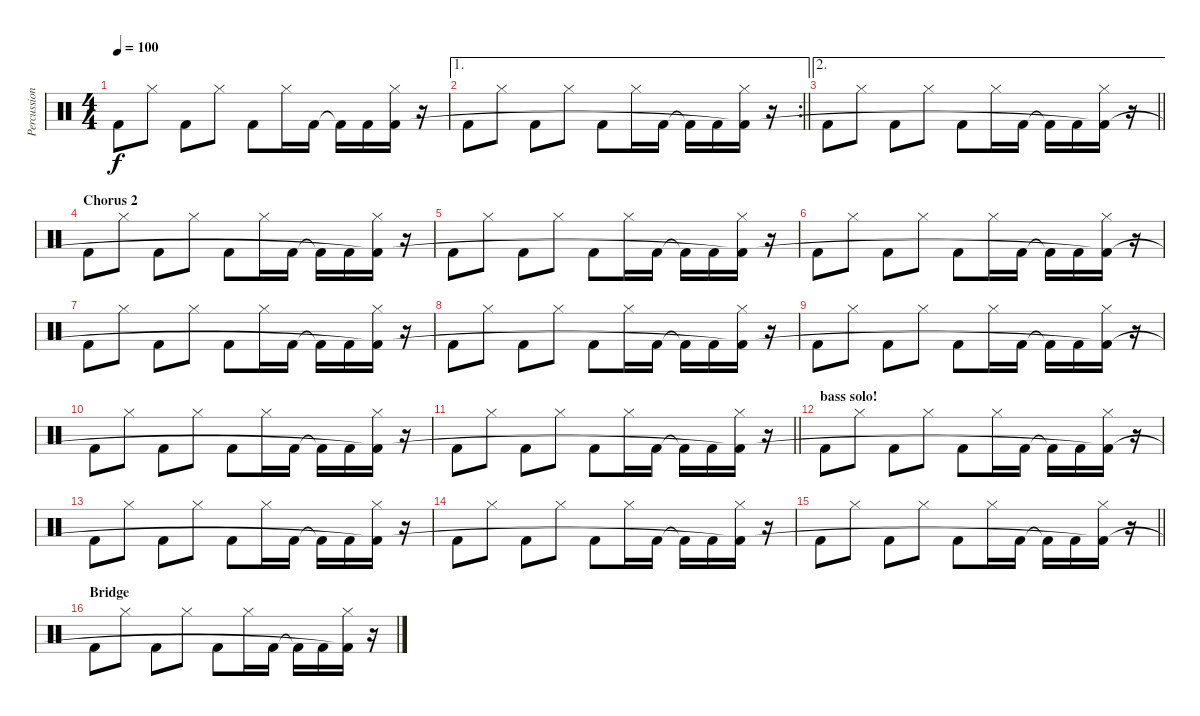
\track ("Percussion" "Percussion") {instrument percussion}
\staff {score}
\articulation defaults
\ts (4 4)
\tempo 100
\clef neutral
\ks c "Kick (hit) 2".8{dy f} "Hi-Hat (closed)".8 "Kick (hit) 2".8 "Hi-Hat (closed)".8 "Kick (hit) 2".8 "Hi-Hat (closed)".16 "Kick (hit) 2".16 "Kick (hit) 2"{t}.16 "Kick (hit) 2".16
("Hi-Hat (closed)" "Kick (hit) 2"{t}).16 r.16 |
\ae 1
\rc 2
\barLineRight lightlight "Kick (hit) 2".8 "Hi-Hat (closed)".8 "Kick (hit) 2".8 "Hi-Hat (closed)".8 "Kick (hit) 2".8 "Hi-Hat (closed)".16 "Kick (hit) 2".16 "Kick (hit) 2"{t}.16 "Kick (hit) 2".16
("Hi-Hat (closed)" "Kick (hit) 2"{t}).16 r.16 |
\ae 2
\barLineRight lightlight "Kick (hit) 2".8 "Hi-Hat (closed)".8 "Kick (hit) 2".8 "Hi-Hat (closed)".8 "Kick (hit) 2".8 "Hi-Hat (closed)".16 "Kick (hit) 2".16 "Kick (hit) 2"{t}.16 "Kick (hit) 2".16
("Hi-Hat (closed)" "Kick (hit) 2"{t}).16 r.16 |
\section ("" "Chorus 2")
"Kick (hit) 2".8 "Hi-Hat (closed)".8 "Kick (hit) 2".8 "Hi-Hat (closed)".8 "Kick (hit) 2".8 "Hi-Hat (closed)".16 "Kick (hit) 2".16 "Kick (hit) 2"{t}.16 "Kick (hit) 2".16 ("Hi-Hat (closed)" "Kick (hit) 2"{t}).16 r.16 |
"Kick (hit) 2".8 "Hi-Hat (closed)".8 "Kick (hit) 2".8 "Hi-Hat (closed)".8 "Kick (hit) 2".8 "Hi-Hat (closed)".16 "Kick (hit) 2".16 "Kick (hit) 2"{t}.16 "Kick (hit) 2".16 ("Hi-Hat (closed)" "Kick (hit) 2"{t}).16 r.16 |
"Kick (hit) 2".8 "Hi-Hat (closed)".8 "Kick (hit) 2".8 "Hi-Hat (closed)".8 "Kick (hit) 2".8 "Hi-Hat (closed)".16 "Kick (hit) 2".16 "Kick (hit) 2"{t}.16 "Kick (hit) 2".16 ("Hi-Hat (closed)" "Kick (hit) 2"{t}).16 r.16 |
"Kick (hit) 2".8 "Hi-Hat (closed)".8 "Kick (hit) 2".8 "Hi-Hat (closed)".8 "Kick (hit) 2".8 "Hi-Hat (closed)".16 "Kick (hit) 2".16 "Kick (hit) 2"{t}.16 "Kick (hit) 2".16 ("Hi-Hat (closed)" "Kick (hit) 2"{t}).16 r.16 |
"Kick (hit) 2".8 "Hi-Hat (closed)".8 "Kick (hit) 2".8 "Hi-Hat (closed)".8 "Kick (hit) 2".8 "Hi-Hat (closed)".16 "Kick (hit) 2".16 "Kick (hit) 2"{t}.16 "Kick (hit) 2".16 ("Hi-Hat (closed)" "Kick (hit) 2"{t}).16 r.16 |
"Kick (hit) 2".8 "Hi-Hat (closed)".8 "Kick (hit) 2".8 "Hi-Hat (closed)".8 "Kick (hit) 2".8 "Hi-Hat (closed)".16 "Kick (hit) 2".16 "Kick (hit) 2"{t}.16 "Kick (hit) 2".16 ("Hi-Hat (closed)" "Kick (hit) 2"{t}).16 r.16 |
"Kick (hit) 2".8 "Hi-Hat (closed)".8 "Kick (hit) 2".8 "Hi-Hat (closed)".8 "Kick (hit) 2".8 "Hi-Hat (closed)".16 "Kick (hit) 2".16 "Kick (hit) 2"{t}.16 "Kick (hit) 2".16 ("Hi-Hat (closed)" "Kick (hit) 2"{t}).16 r.16 |
\barLineRight lightlight "Kick (hit) 2".8 "Hi-Hat (closed)".8 "Kick (hit) 2".8 "Hi-Hat (closed)".8 "Kick (hit) 2".8 "Hi-Hat (closed)".16 "Kick (hit) 2".16 "Kick (hit) 2"{t}.16 "Kick (hit) 2".16
("Hi-Hat (closed)" "Kick (hit) 2"{t}).16 r.16 |
\section ("" "bass solo!")
"Kick (hit) 2".8 "Hi-Hat (closed)".8 "Kick (hit) 2".8 "Hi-Hat (closed)".8 "Kick (hit) 2".8 "Hi-Hat (closed)".16 "Kick (hit) 2".16 "Kick (hit) 2"{t}.16 "Kick (hit) 2".16 ("Hi-Hat (closed)" "Kick (hit) 2"{t}).16 r.16 |
"Kick (hit) 2".8 "Hi-Hat (closed)".8 "Kick (hit) 2".8 "Hi-Hat (closed)".8 "Kick (hit) 2".8 "Hi-Hat (closed)".16 "Kick (hit) 2".16 "Kick (hit) 2"{t}.16 "Kick (hit) 2".16 ("Hi-Hat (closed)" "Kick (hit) 2"{t}).16 r.16 |
"Kick (hit) 2".8 "Hi-Hat (closed)".8 "Kick (hit) 2".8 "Hi-Hat (closed)".8 "Kick (hit) 2".8 "Hi-Hat (closed)".16 "Kick (hit) 2".16 "Kick (hit) 2"{t}.16 "Kick (hit) 2".16 ("Hi-Hat (closed)" "Kick (hit) 2"{t}).16 r.16 |
\barLineRight lightlight "Kick (hit) 2".8 "Hi-Hat (closed)".8 "Kick (hit) 2".8 "Hi-Hat (closed)".8 "Kick (hit) 2".8 "Hi-Hat (closed)".16 "Kick (hit) 2".16 "Kick (hit) 2"{t}.16 "Kick (hit) 2".16
("Hi-Hat (closed)" "Kick (hit) 2"{t}).16 r.16 |
\section ("" "Bridge")
"Kick (hit) 2".8 "Hi-Hat (closed)".8 "Kick (hit) 2".8 "Hi-Hat (closed)".8 "Kick (hit) 2".8 "Hi-Hat (closed)".16 "Kick (hit) 2".16 "Kick (hit) 2"{t}.16 "Kick (hit) 2".16 ("Hi-Hat (closed)" "Kick (hit) 2"{t}).16 r.16
